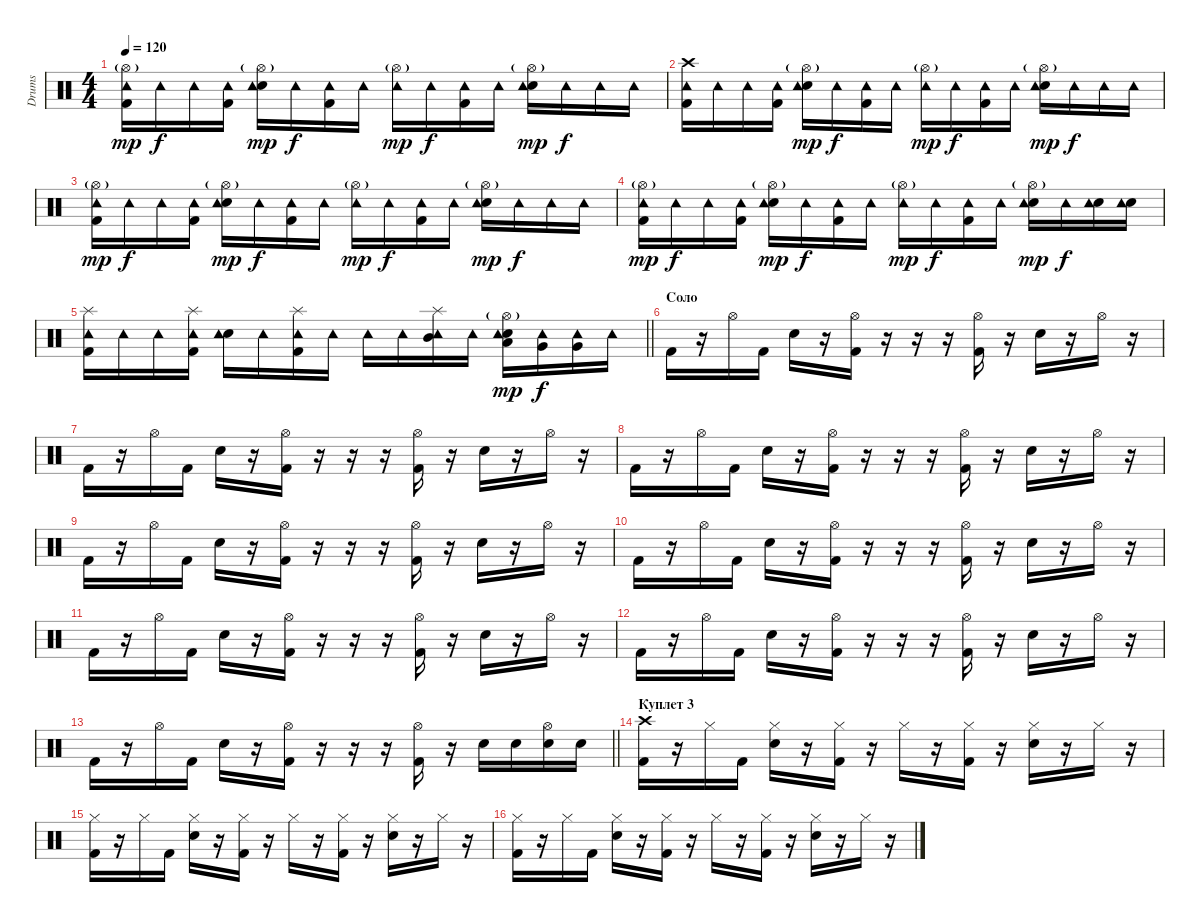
\track ("Drums" "Drums") {instrument percussion}
\staff {score}
\articulation defaults
\ts (4 4)
\tempo 120
\clef neutral
\ks c
("Hi-Hat (open)"{g} "Kick (hit) 2" "Tambourine (hit)").16{dy mp} "Tambourine (hit)".16{dy f} "Tambourine (hit)".16 ("Kick (hit) 2" "Tambourine (hit)").16 ("Hi-Hat (open)"{g} "Electric Snare (hit)" "Tambourine (hit)").16{dy mp} "Tambourine (hit)".16{dy f} ("Kick (hit) 2" "Tambourine (hit)").16 "Tambourine (hit)".16 ("Hi-Hat (open)"{g} "Tambourine (hit)").16{dy mp} "Tambourine (hit)".16{dy f} ("Kick (hit) 2" "Tambourine (hit)").16 "Tambourine (hit)".16 ("Hi-Hat (open)"{g} "Electric Snare (hit)" "Tambourine (hit)").16{dy mp} "Tambourine (hit)".16{dy f} "Tambourine (hit)".16 "Tambourine (hit)".16 |
("Crash high (hit)" "Kick (hit) 2" "Tambourine (hit)").16 "Tambourine (hit)".16 "Tambourine (hit)".16 ("Kick (hit) 2" "Tambourine (hit)").16 ("Hi-Hat (open)"{g} "Electric Snare (hit)" "Tambourine (hit)").16{dy mp} "Tambourine (hit)".16{dy f} ("Kick (hit) 2" "Tambourine (hit)").16 "Tambourine (hit)".16 ("Hi-Hat (open)"{g} "Tambourine (hit)").16{dy mp} "Tambourine (hit)".16{dy f} ("Kick (hit) 2" "Tambourine (hit)").16 "Tambourine (hit)".16 ("Hi-Hat (open)"{g} "Electric Snare (hit)" "Tambourine (hit)").16{dy mp} "Tambourine (hit)".16{dy f} "Tambourine (hit)".16 "Tambourine (hit)".16 |
("Hi-Hat (open)"{g} "Kick (hit) 2" "Tambourine (hit)").16{dy mp} "Tambourine (hit)".16{dy f} "Tambourine (hit)".16 ("Kick (hit) 2" "Tambourine (hit)").16 ("Hi-Hat (open)"{g} "Electric Snare (hit)" "Tambourine (hit)").16{dy mp} "Tambourine (hit)".16{dy f} ("Kick (hit) 2" "Tambourine (hit)").16 "Tambourine (hit)".16 ("Hi-Hat (open)"{g} "Tambourine (hit)").16{dy mp} "Tambourine (hit)".16{dy f} ("Kick (hit) 2" "Tambourine (hit)").16 "Tambourine (hit)".16 ("Hi-Hat (open)"{g} "Electric Snare (hit)" "Tambourine (hit)").16{dy mp} "Tambourine (hit)".16{dy f} "Tambourine (hit)".16 "Tambourine (hit)".16 |
("Hi-Hat (open)"{g} "Kick (hit) 2" "Tambourine (hit)").16{dy mp} "Tambourine (hit)".16{dy f} "Tambourine (hit)".16 ("Kick (hit) 2" "Tambourine (hit)").16 ("Hi-Hat (open)"{g} "Electric Snare (hit)" "Tambourine (hit)").16{dy mp} "Tambourine (hit)".16{dy f} ("Kick (hit) 2" "Tambourine (hit)").16 "Tambourine (hit)".16 ("Hi-Hat (open)"{g} "Tambourine (hit)").16{dy mp} "Tambourine (hit)".16{dy f} ("Kick (hit) 2" "Tambourine (hit)").16 "Tambourine (hit)".16 ("Hi-Hat (open)"{g} "Electric Snare (hit)" "Tambourine (hit)").16{dy mp} "Tambourine (hit)".16{dy f} ("Electric Snare (hit)" "Tambourine (hit)").16 ("Electric Snare (hit)" "Tambourine (hit)").16 |
\barLineRight lightlight
("Splash (hit)" "Kick (hit) 2" "Tambourine (hit)").16 "Tambourine (hit)".16 "Tambourine (hit)".16 ("Splash (hit)" "Kick (hit) 2" "Tambourine (hit)").16 ("Electric Snare (hit)" "Tambourine (hit)").16 "Tambourine (hit)".16 ("Splash (hit)" "Kick (hit) 2" "Tambourine (hit)").16 "Tambourine (hit)".16 "Tambourine (hit)".16 "Tambourine (hit)".16 ("Splash (hit)" "Tambourine (hit)" "Mid Tom (hit)").16 "Tambourine (hit)".16 ("Hi-Hat (open)"{g} "Electric Snare (hit)" "Tambourine (hit)" "Low Tom (hit)").16{dy mp} ("Tambourine (hit)" "Very Low Tom (hit)").16{dy f} ("Tambourine (hit)" "Very Low Tom (hit)").16 "Tambourine (hit)".16 |
\section ("" "Соло")
"Kick (hit) 2".16 r.16 "Hi-Hat (open)".16 "Kick (hit) 2".16 "Electric Snare (hit)".16 r.16 ("Hi-Hat (open)" "Kick (hit) 2").16 r.16 r.16 r.16 ("Hi-Hat (open)" "Kick (hit) 2").16 r.16 "Electric Snare (hit)".16 r.16 "Hi-Hat (open)".16 r.16 |
"Kick (hit) 2".16 r.16 "Hi-Hat (open)".16 "Kick (hit) 2".16 "Electric Snare (hit)".16 r.16 ("Hi-Hat (open)" "Kick (hit) 2").16 r.16 r.16 r.16 ("Hi-Hat (open)" "Kick (hit) 2").16 r.16 "Electric Snare (hit)".16 r.16 "Hi-Hat (open)".16 r.16 |
"Kick (hit) 2".16 r.16 "Hi-Hat (open)".16 "Kick (hit) 2".16 "Electric Snare (hit)".16 r.16 ("Hi-Hat (open)" "Kick (hit) 2").16 r.16 r.16 r.16 ("Hi-Hat (open)" "Kick (hit) 2").16 r.16 "Electric Snare (hit)".16 r.16 "Hi-Hat (open)".16 r.16 |
"Kick (hit) 2".16 r.16 "Hi-Hat (open)".16 "Kick (hit) 2".16 "Electric Snare (hit)".16 r.16 ("Hi-Hat (open)" "Kick (hit) 2").16 r.16 r.16 r.16 ("Hi-Hat (open)" "Kick (hit) 2").16 r.16 "Electric Snare (hit)".16 r.16 "Hi-Hat (open)".16 r.16 |
"Kick (hit) 2".16 r.16 "Hi-Hat (open)".16 "Kick (hit) 2".16 "Electric Snare (hit)".16 r.16 ("Hi-Hat (open)" "Kick (hit) 2").16 r.16 r.16 r.16 ("Hi-Hat (open)" "Kick (hit) 2").16 r.16 "Electric Snare (hit)".16 r.16 "Hi-Hat (open)".16 r.16 |
"Kick (hit) 2".16 r.16 "Hi-Hat (open)".16 "Kick (hit) 2".16 "Electric Snare (hit)".16 r.16 ("Hi-Hat (open)" "Kick (hit) 2").16 r.16 r.16 r.16 ("Hi-Hat (open)" "Kick (hit) 2").16 r.16 "Electric Snare (hit)".16 r.16 "Hi-Hat (open)".16 r.16 |
"Kick (hit) 2".16 r.16 "Hi-Hat (open)".16 "Kick (hit) 2".16 "Electric Snare (hit)".16 r.16 ("Hi-Hat (open)" "Kick (hit) 2").16 r.16 r.16 r.16 ("Hi-Hat (open)" "Kick (hit) 2").16 r.16 "Electric Snare (hit)".16 r.16 "Hi-Hat (open)".16 r.16 |
\barLineRight lightlight "Kick (hit) 2".16
r.16 "Hi-Hat (open)".16 "Kick (hit) 2".16 "Electric Snare (hit)".16 r.16 ("Hi-Hat (open)" "Kick (hit) 2").16 r.16 r.16 r.16 ("Hi-Hat (open)" "Kick (hit) 2").16 r.16 "Electric Snare (hit)".16 "Electric Snare (hit)".16 ("Hi-Hat (open)" "Electric Snare (hit)").16 "Electric Snare (hit)".16 |
\section ("" "Куплет 3")
("Crash high (hit)" "Kick (hit) 2").16 r.16 "Hi-Hat (closed)".16 "Kick (hit) 2".16 ("Hi-Hat (closed)" "Electric Snare (hit)").16 r.16 ("Hi-Hat (closed)" "Kick (hit) 2").16 r.16 "Hi-Hat (closed)".16 r.16 ("Hi-Hat (closed)" "Kick (hit) 2").16 r.16 ("Hi-Hat (closed)" "Electric Snare (hit)").16 r.16 "Hi-Hat (closed)".16 r.16 |
("Hi-Hat (closed)" "Kick (hit) 2").16 r.16 "Hi-Hat (closed)".16 "Kick (hit) 2".16 ("Hi-Hat (closed)" "Electric Snare (hit)").16 r.16 ("Hi-Hat (closed)" "Kick (hit) 2").16 r.16 "Hi-Hat (closed)".16 r.16 ("Hi-Hat (closed)" "Kick (hit) 2").16 r.16 ("Hi-Hat (closed)" "Electric Snare (hit)").16 r.16 "Hi-Hat (closed)".16 r.16 |
("Hi-Hat (closed)" "Kick (hit) 2").16 r.16 "Hi-Hat (closed)".16 "Kick (hit) 2".16 ("Hi-Hat (closed)" "Electric Snare (hit)").16 r.16 ("Hi-Hat (closed)" "Kick (hit) 2").16 r.16 "Hi-Hat (closed)".16 r.16 ("Hi-Hat (closed)" "Kick (hit) 2").16 r.16 ("Hi-Hat (closed)" "Electric Snare (hit)").16 r.16 "Hi-Hat (closed)".16 r.16
